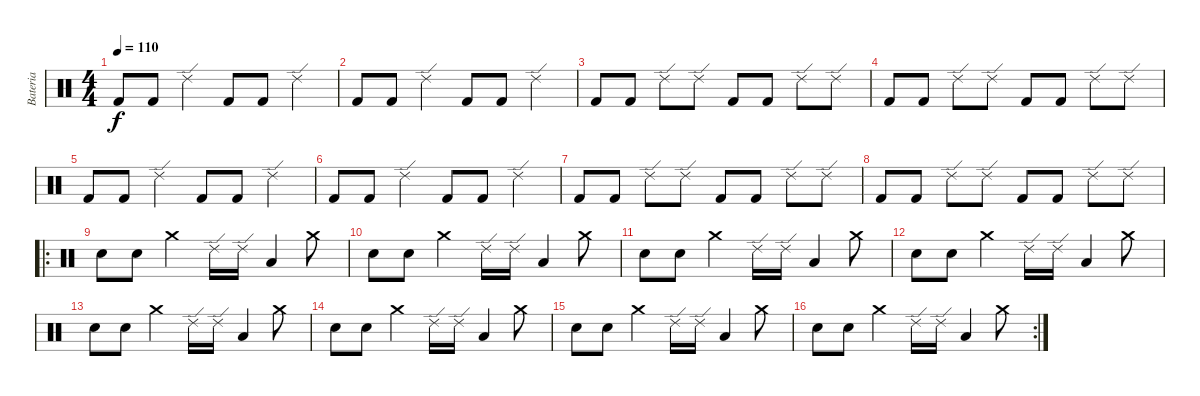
\track ("Bateria" "Bateria") {instrument percussion}
\staff {score}
\articulation defaults
\ts (4 4)
\tempo 110
\clef neutral
\ks c "Kick (hit) 2".8{dy f} "Kick (hit) 2".8 "Ride (edge) 2".4 "Kick (hit) 2".8 "Kick (hit) 2".8 "Ride (edge) 2".4
|
"Kick (hit) 2".8 "Kick (hit) 2".8 "Ride (edge) 2".4 "Kick (hit) 2".8 "Kick (hit) 2".8 "Ride (edge) 2".4 |
"Kick (hit) 2".8 "Kick (hit) 2".8 "Ride (edge) 2".8 "Ride (edge) 2".8 "Kick (hit) 2".8 "Kick (hit) 2".8 "Ride (edge) 2".8 "Ride (edge) 2".8 |
"Kick (hit) 2".8 "Kick (hit) 2".8 "Ride (edge) 2".8 "Ride (edge) 2".8 "Kick (hit) 2".8 "Kick (hit) 2".8 "Ride (edge) 2".8 "Ride (edge) 2".8 |
"Kick (hit) 2".8 "Kick (hit) 2".8 "Ride (edge) 2".4 "Kick (hit) 2".8 "Kick (hit) 2".8 "Ride (edge) 2".4 |
"Kick (hit) 2".8 "Kick (hit) 2".8 "Ride (edge) 2".4 "Kick (hit) 2".8 "Kick (hit) 2".8 "Ride (edge) 2".4 |
"Kick (hit) 2".8 "Kick (hit) 2".8 "Ride (edge) 2".8 "Ride (edge) 2".8 "Kick (hit) 2".8 "Kick (hit) 2".8 "Ride (edge) 2".8 "Ride (edge) 2".8 |
"Kick (hit) 2".8 "Kick (hit) 2".8 "Ride (edge) 2".8 "Ride (edge) 2".8 "Kick (hit) 2".8 "Kick (hit) 2".8 "Ride (edge) 2".8 "Ride (edge) 2".8 |
\ro "Electric Snare (hit)".8 "Electric Snare (hit)".8 "Crash medium (hit)".4 "Ride (edge) 2".16 "Ride (edge) 2".16 "Low Tom (hit)".4 "Crash medium (hit)".8
|
"Electric Snare (hit)".8 "Electric Snare (hit)".8 "Crash medium (hit)".4 "Ride (edge) 2".16 "Ride (edge) 2".16 "Low Tom (hit)".4 "Crash medium (hit)".8 |
"Electric Snare (hit)".8 "Electric Snare (hit)".8 "Crash medium (hit)".4 "Ride (edge) 2".16 "Ride (edge) 2".16 "Low Tom (hit)".4 "Crash medium (hit)".8 |
"Electric Snare (hit)".8 "Electric Snare (hit)".8 "Crash medium (hit)".4 "Ride (edge) 2".16 "Ride (edge) 2".16 "Low Tom (hit)".4 "Crash medium (hit)".8 |
"Electric Snare (hit)".8 "Electric Snare (hit)".8 "Crash medium (hit)".4 "Ride (edge) 2".16 "Ride (edge) 2".16 "Low Tom (hit)".4 "Crash medium (hit)".8 |
"Electric Snare (hit)".8 "Electric Snare (hit)".8 "Crash medium (hit)".4 "Ride (edge) 2".16 "Ride (edge) 2".16 "Low Tom (hit)".4 "Crash medium (hit)".8 |
"Electric Snare (hit)".8 "Electric Snare (hit)".8 "Crash medium (hit)".4 "Ride (edge) 2".16 "Ride (edge) 2".16 "Low Tom (hit)".4 "Crash medium (hit)".8 |
\rc 2 "Electric Snare (hit)".8 "Electric Snare (hit)".8 "Crash medium (hit)".4 "Ride (edge) 2".16 "Ride (edge) 2".16 "Low Tom (hit)".4 "Crash medium (hit)".8
